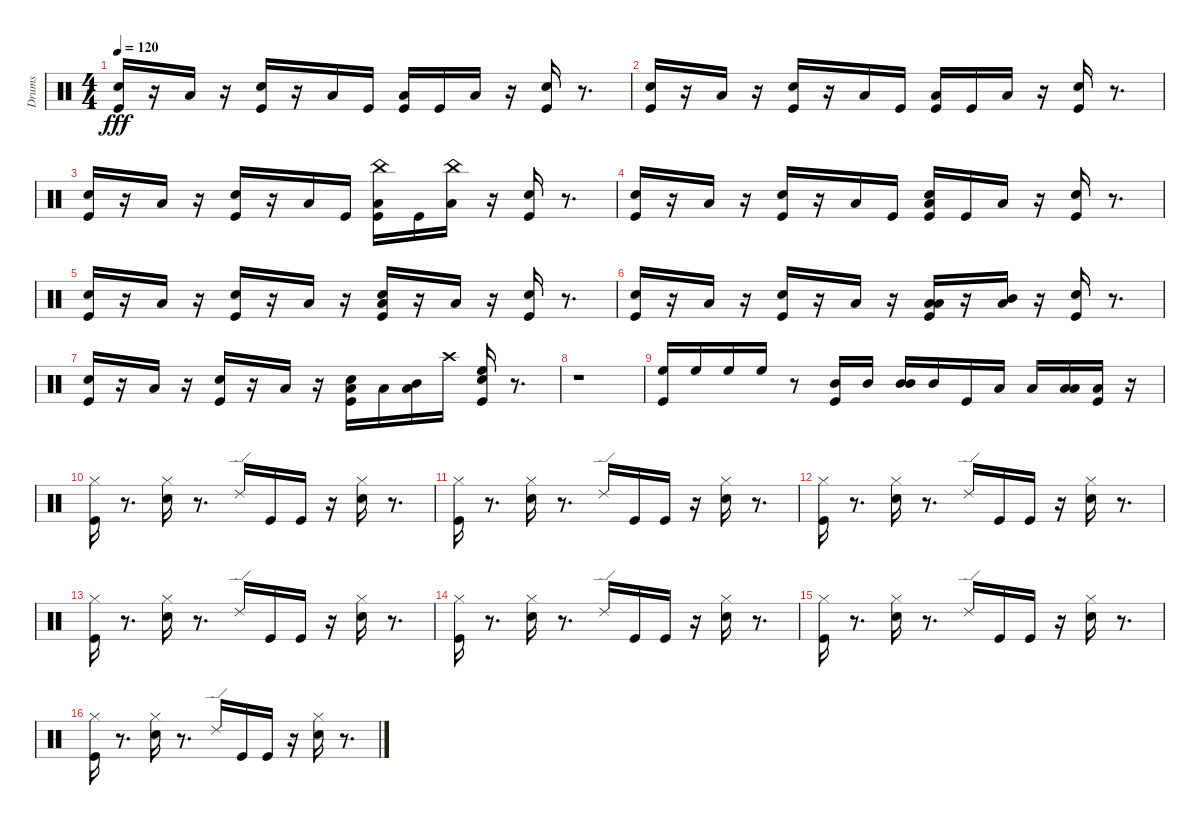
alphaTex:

\track ("Drums" "Drums") {instrument percussion}
\staff {score}
\articulation defaults
\ts (4 4)
\tempo 120
\clef neutral
\ks c
("Kick (hit)" "Electric Snare (hit)").16{dy fff} r.16 "Low Floor Tom (hit)".16 r.16 ("Kick (hit)" "Electric Snare (hit)").16 r.16 "Low Floor Tom (hit)".16 "Kick (hit)".16 ("Low Floor Tom (hit)" "Kick (hit)").16 "Kick (hit)".16 "Low Floor Tom (hit)".16 r.16 ("Kick (hit)" "Electric Snare (hit)").16 r.8{d} |
("Kick (hit)" "Electric Snare (hit)").16 r.16 "Low Floor Tom (hit)".16 r.16 ("Kick (hit)" "Electric Snare (hit)").16 r.16 "Low Floor Tom (hit)".16 "Kick (hit)".16 ("Low Floor Tom (hit)" "Kick (hit)").16 "Kick (hit)".16 "Low Floor Tom (hit)".16 r.16 ("Kick (hit)" "Electric Snare (hit)").16 r.8{d} |
("Kick (hit)" "Electric Snare (hit)").16 r.16 "Low Floor Tom (hit)".16 r.16 ("Kick (hit)" "Electric Snare (hit)").16 r.16 "Low Floor Tom (hit)".16 "Kick (hit)".16 ("Low Floor Tom (hit)" "Kick (hit)" "China (hit)").16 "Kick (hit)".16 ("Low Floor Tom (hit)" "China (hit)").16 r.16 ("Kick (hit)" "Electric Snare (hit)").16 r.8{d} |
("Kick (hit)" "Electric Snare (hit)").16 r.16 "Low Floor Tom (hit)".16 r.16 ("Kick (hit)" "Electric Snare (hit)").16 r.16 "Low Floor Tom (hit)".16 "Kick (hit)".16 ("Electric Snare (hit)" "Low Floor Tom (hit)" "Kick (hit)").16 "Kick (hit)".16 "Low Floor Tom (hit)".16 r.16 ("Kick (hit)" "Electric Snare (hit)").16 r.8{d} |
("Kick (hit)" "Electric Snare (hit)").16 r.16 "Low Floor Tom (hit)".16 r.16 ("Kick (hit)" "Electric Snare (hit)").16 r.16 "Low Floor Tom (hit)".16 r.16 ("Low Floor Tom (hit)" "Electric Snare (hit)" "Kick (hit)").16 r.16 "Low Floor Tom (hit)".16 r.16 ("Kick (hit)" "Electric Snare (hit)").16 r.8{d} |
("Kick (hit)" "Electric Snare (hit)").16 r.16 "Low Floor Tom (hit)".16 r.16 ("Kick (hit)" "Electric Snare (hit)").16 r.16 "Low Floor Tom (hit)".16 r.16 ("Low Floor Tom (hit)" "Kick (hit)" "Low Tom (hit)").16 r.16 ("Low Floor Tom (hit)" "Mid Tom (hit)").16 r.16 ("Kick (hit)" "Electric Snare (hit)").16 r.8{d} |
("Kick (hit)" "Electric Snare (hit)").16 r.16 "Low Floor Tom (hit)".16 r.16 ("Kick (hit)" "Electric Snare (hit)").16 r.16 "Low Floor Tom (hit)".16 r.16 ("Low Floor Tom (hit)" "Electric Snare (hit)" "Kick (hit)").16 "Low Tom (hit)".16 ("Low Floor Tom (hit)" "Mid Tom (hit)").16 "Crash high (hit)".16 ("Kick (hit)" "Electric Snare (hit)" "High Floor Tom (hit)").16 r.8{d} |
r.1 |
("High Floor Tom (hit)" "Kick (hit)").16 "High Floor Tom (hit)".16 "High Floor Tom (hit)".16 "High Floor Tom (hit)".16 r.8 ("Mid Tom (hit)" "Kick (hit)").16 "Mid Tom (hit)".16 ("Mid Tom (hit)" "Mid Tom (hit)").16 "Mid Tom (hit)".16 "Kick (hit)".16 "Low Tom (hit)".16 "Low Tom (hit)".16 ("Low Tom (hit)" "Low Tom (hit)").16 ("Low Tom (hit)" "Kick (hit)").16 r.16 |
("Hi-Hat (closed)" "Kick (hit)").16 r.8{d} ("Hi-Hat (closed)" "Snare (hit) 2").16 r.8{d} "Ride (edge) 2".16 "Kick (hit)".16 "Kick (hit)".16 r.16 ("Hi-Hat (closed)" "Snare (hit) 2").16 r.8{d} |
("Hi-Hat (closed)" "Kick (hit)").16 r.8{d} ("Hi-Hat (closed)" "Snare (hit) 2").16 r.8{d} "Ride (edge) 2".16 "Kick (hit)".16 "Kick (hit)".16 r.16 ("Hi-Hat (closed)" "Snare (hit) 2").16 r.8{d} |
("Hi-Hat (closed)" "Kick (hit)").16 r.8{d} ("Hi-Hat (closed)" "Snare (hit) 2").16 r.8{d} "Ride (edge) 2".16 "Kick (hit)".16 "Kick (hit)".16 r.16 ("Hi-Hat (closed)" "Snare (hit) 2").16 r.8{d} |
("Hi-Hat (closed)" "Kick (hit)").16 r.8{d} ("Hi-Hat (closed)" "Snare (hit) 2").16 r.8{d} "Ride (edge) 2".16 "Kick (hit)".16 "Kick (hit)".16 r.16 ("Hi-Hat (closed)" "Snare (hit) 2").16 r.8{d} |
("Hi-Hat (closed)" "Kick (hit)").16 r.8{d} ("Hi-Hat (closed)" "Snare (hit) 2").16 r.8{d} "Ride (edge) 2".16 "Kick (hit)".16 "Kick (hit)".16 r.16 ("Hi-Hat (closed)" "Snare (hit) 2").16 r.8{d} |
("Hi-Hat (closed)" "Kick (hit)").16 r.8{d} ("Hi-Hat (closed)" "Snare (hit) 2").16 r.8{d} "Ride (edge) 2".16 "Kick (hit)".16 "Kick (hit)".16 r.16 ("Hi-Hat (closed)" "Snare (hit) 2").16 r.8{d} |
("Hi-Hat (closed)" "Kick (hit)").16 r.8{d} ("Hi-Hat (closed)" "Snare (hit) 2").16 r.8{d} "Ride (edge) 2".16{volume 16} "Kick (hit)".16{volume 16} "Kick (hit)".16{volume 15} r.16 ("Hi-Hat (closed)" "Snare (hit) 2").16{volume 15} r.8{d}
